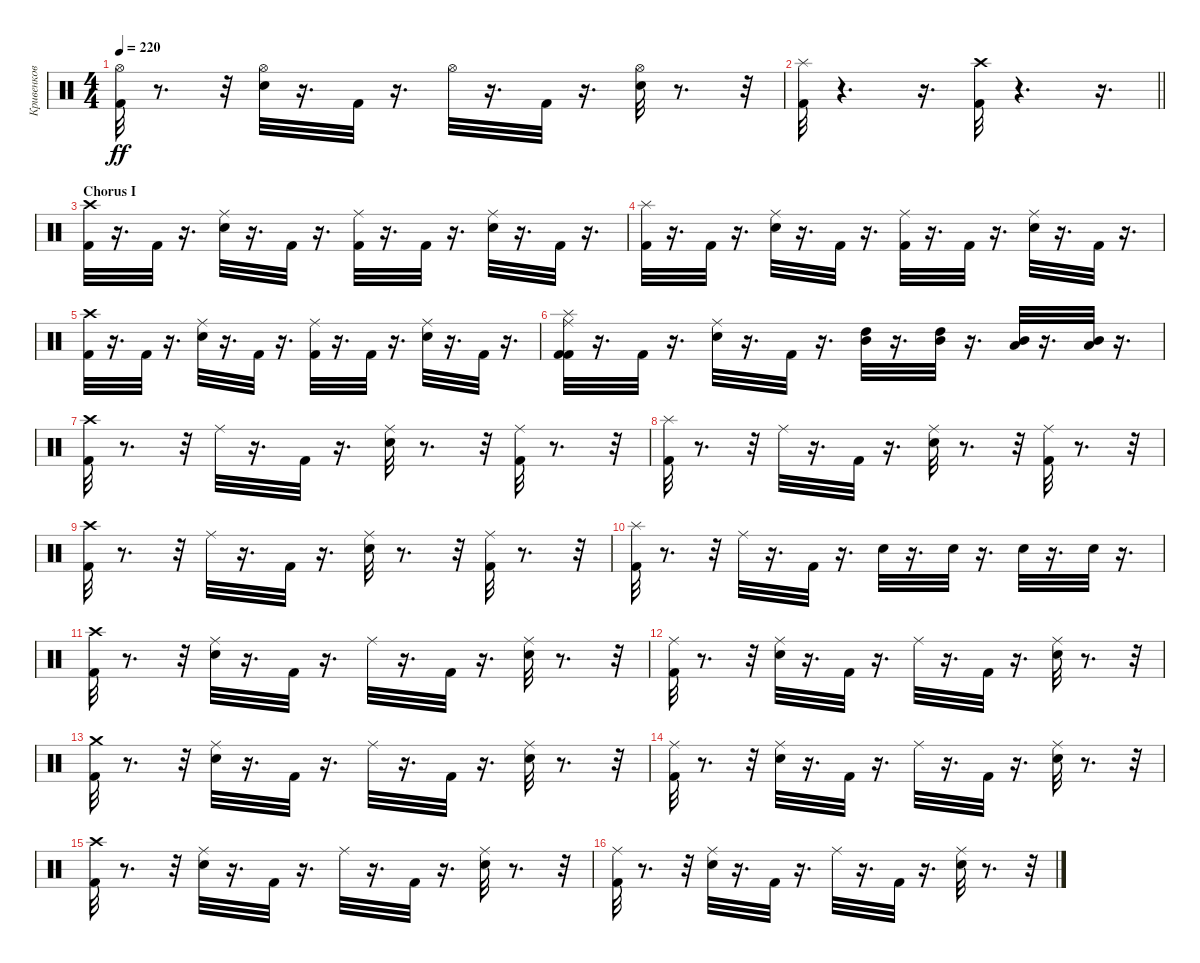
\track ("Кривенков" "Кривенков") {instrument percussion}
\staff {score}
\articulation defaults
\ts (4 4)
\tempo 220
\clef neutral
\ks c
("Kick (hit) 2" "Hi-Hat (open)").32{dy ff} r.8{d} r.32 ("Electric Snare (hit)" "Hi-Hat (open)").32 r.16{d} "Kick (hit) 2".32 r.16{d} "Hi-Hat (open)".32 r.16{d} "Kick (hit) 2".32 r.16{d} ("Hi-Hat (open)" "Electric Snare (hit)").32 r.8{d} r.32 |
\barLineRight lightlight
("Splash (hit)" "Kick (hit) 2").32 r.4{d} r.16{d} ("Crash high (hit)" "Kick (hit) 2").32 r.4{d} r.16{d} |
\section ("" "Chorus I")
("Crash high (hit)" "Kick (hit) 2").32 r.16{d} "Kick (hit) 2".32 r.16{d} ("Ride (middle)" "Electric Snare (hit)").32 r.16{d} "Kick (hit) 2".32 r.16{d} ("Ride (middle)" "Kick (hit) 2").32 r.16{d} "Kick (hit) 2".32 r.16{d} ("Electric Snare (hit)" "Ride (middle)").32 r.16{d} "Kick (hit) 2".32 r.16{d} |
("Kick (hit) 2" "Splash (hit)").32 r.16{d} "Kick (hit) 2".32 r.16{d} ("Electric Snare (hit)" "Ride (middle)").32 r.16{d} "Kick (hit) 2".32 r.16{d} ("Kick (hit) 2" "Ride (middle)").32 r.16{d} "Kick (hit) 2".32 r.16{d} ("Electric Snare (hit)" "Ride (middle)").32 r.16{d} "Kick (hit) 2".32 r.16{d} |
("Crash high (hit)" "Kick (hit) 2").32 r.16{d} "Kick (hit) 2".32 r.16{d} ("Ride (middle)" "Electric Snare (hit)").32 r.16{d} "Kick (hit) 2".32 r.16{d} ("Ride (middle)" "Kick (hit) 2").32 r.16{d} "Kick (hit) 2".32 r.16{d} ("Electric Snare (hit)" "Ride (middle)").32 r.16{d} "Kick (hit) 2".32 r.16{d} |
("Ride (middle)" "Kick (hit) 2" "Kick (hit) 2" "Splash (hit)").32 r.16{d} "Kick (hit) 2".32 r.16{d} ("Ride (middle)" "Electric Snare (hit)").32 r.16{d} "Kick (hit) 2".32 r.16{d} ("Mid Tom (hit)" "High Tom (hit)").32 r.16{d} ("Mid Tom (hit)" "High Tom (hit)").32 r.16{d} ("Low Tom (hit)" "Mid Tom (hit)").32 r.16{d} ("Low Tom (hit)" "Mid Tom (hit)").32 r.16{d} |
("Kick (hit) 2" "Crash high (hit)").32 r.8{d} r.32 "Ride (middle)".32 r.16{d} "Kick (hit) 2".32 r.16{d} ("Electric Snare (hit)" "Ride (middle)").32 r.8{d} r.32 ("Kick (hit) 2" "Ride (middle)").32 r.8{d} r.32 |
("Splash (hit)" "Kick (hit) 2").32 r.8{d} r.32 "Ride (middle)".32 r.16{d} "Kick (hit) 2".32 r.16{d} ("Ride (middle)" "Electric Snare (hit)").32 r.8{d} r.32 ("Ride (middle)" "Kick (hit) 2").32 r.8{d} r.32 |
("Kick (hit) 2" "Crash high (hit)").32 r.8{d} r.32 "Ride (middle)".32 r.16{d} "Kick (hit) 2".32 r.16{d} ("Electric Snare (hit)" "Ride (middle)").32 r.8{d} r.32 ("Kick (hit) 2" "Ride (middle)").32 r.8{d} r.32 |
("Splash (hit)" "Kick (hit) 2").32 r.8{d} r.32 "Ride (middle)".32 r.16{d} "Kick (hit) 2".32 r.16{d} "Electric Snare (hit)".32 r.16{d} "Electric Snare (hit)".32 r.16{d} "Electric Snare (hit)".32 r.16{d} "Electric Snare (hit)".32 r.16{d} |
("Crash high (hit)" "Kick (hit) 2").32 r.8{d} r.32 ("Ride (middle)" "Electric Snare (hit)").32 r.16{d} "Kick (hit) 2".32 r.16{d} "Ride (middle)".32 r.16{d} "Kick (hit) 2".32 r.16{d} ("Ride (middle)" "Electric Snare (hit)").32 r.8{d} r.32 |
("Kick (hit) 2" "Ride (middle)").32 r.8{d} r.32 ("Electric Snare (hit)" "Ride (middle)").32 r.16{d} "Kick (hit) 2".32 r.16{d} "Ride (middle)".32 r.16{d} "Kick (hit) 2".32 r.16{d} ("Electric Snare (hit)" "Ride (middle)").32 r.8{d} r.32 |
("Crash medium (hit)" "Kick (hit) 2").32 r.8{d} r.32 ("Ride (middle)" "Electric Snare (hit)").32 r.16{d} "Kick (hit) 2".32 r.16{d} "Ride (middle)".32 r.16{d} "Kick (hit) 2".32 r.16{d} ("Ride (middle)" "Electric Snare (hit)").32 r.8{d} r.32 |
("Kick (hit) 2" "Ride (middle)").32 r.8{d} r.32 ("Electric Snare (hit)" "Ride (middle)").32 r.16{d} "Kick (hit) 2".32 r.16{d} "Ride (middle)".32 r.16{d} "Kick (hit) 2".32 r.16{d} ("Electric Snare (hit)" "Ride (middle)").32 r.8{d} r.32 |
("Crash high (hit)" "Kick (hit) 2").32 r.8{d} r.32 ("Ride (middle)" "Electric Snare (hit)").32 r.16{d} "Kick (hit) 2".32 r.16{d} "Ride (middle)".32 r.16{d} "Kick (hit) 2".32 r.16{d} ("Ride (middle)" "Electric Snare (hit)").32 r.8{d} r.32 |
("Kick (hit) 2" "Ride (middle)").32 r.8{d} r.32 ("Electric Snare (hit)" "Ride (middle)").32 r.16{d} "Kick (hit) 2".32 r.16{d} "Ride (middle)".32 r.16{d} "Kick (hit) 2".32 r.16{d} ("Electric Snare (hit)" "Ride (middle)").32 r.8{d} r.32
